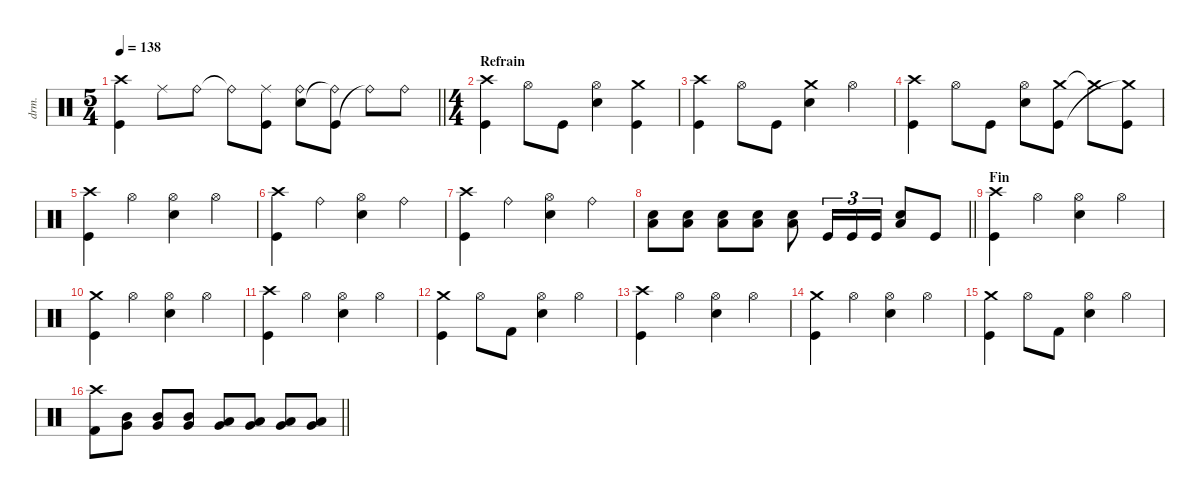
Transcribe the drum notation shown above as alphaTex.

\defaultSystemsLayout 4
\hideDynamics
\bracketExtendMode nobrackets
\track ("Percussions" "drm.") {instrument percussion}
\staff {score}
\articulation defaults
\ts (5 4)
\tempo 138
\clef neutral
\barLineRight lightlight
\ks aminor
("Crash high (hit)" "Kick (hit)").4{dy f} "Ride (middle)".8 "Ride (bell)".8 "Ride (bell)"{t}.8 ("Ride (middle)" "Kick (hit)").8 ("Ride (bell)" "Snare (hit) 2").8 ("Kick (hit)" "Ride (bell)"{t}).8 "Ride (bell)"{t}.8 "Ride (bell)".8 |
\ts (4 4)
\beaming (8 2 2 2 2)
\section ("" "Refrain")
("Kick (hit)" "Crash high (hit)").4 "Hi-Hat (open)".8 "Kick (hit)".8 ("Hi-Hat (open)" "Snare (hit) 2").4 ("Crash medium (hit)" "Kick (hit)").4 |
("Kick (hit)" "Crash high (hit)").4 "Hi-Hat (open)".8 "Kick (hit)".8 ("Crash medium (hit)" "Snare (hit) 2").4 "Hi-Hat (open)".4 |
("Kick (hit)" "Crash high (hit)").4 "Hi-Hat (open)".8 "Kick (hit)".8 ("Hi-Hat (open)" "Snare (hit) 2").8 ("Crash medium (hit)" "Kick (hit)").8 "Crash medium (hit)"{t}.8 ("Kick (hit)" "Crash medium (hit)"{t}).8 |
("Kick (hit)" "Crash high (hit)").4 "Hi-Hat (open)".4 ("Hi-Hat (open)" "Snare (hit) 2").4 "Hi-Hat (open)".4 |
("Kick (hit)" "Crash high (hit)").4 "Ride (bell)".4 ("Hi-Hat (open)" "Snare (hit) 2").4 "Ride (bell)".4 |
("Kick (hit)" "Crash high (hit)").4 "Ride (bell)".4 ("Hi-Hat (open)" "Snare (hit) 2").4 "Ride (bell)".4 |
\barLineRight lightlight
("Snare (hit) 2" "Low Tom (hit)").8 ("Snare (hit) 2" "Low Tom (hit)").8 ("Snare (hit) 2" "Low Tom (hit)").8 ("Snare (hit) 2" "Low Tom (hit)").8 ("Snare (hit) 2" "Low Tom (hit)").8 "Kick (hit)".16{tu (3 2)} "Kick (hit)".16{tu (3 2)} "Kick (hit)".16{tu (3 2)} ("Snare (hit) 2" "Low Tom (hit)").8 "Kick (hit)".8 |
\section ("" "Fin")
("Crash high (hit)" "Kick (hit)").4 "Hi-Hat (open)".4 ("Hi-Hat (open)" "Snare (hit) 2").4 "Hi-Hat (open)".4 |
("Crash medium (hit)" "Kick (hit)").4 "Hi-Hat (open)".4 ("Hi-Hat (open)" "Snare (hit) 2").4 "Hi-Hat (open)".4 |
("Crash high (hit)" "Kick (hit)").4 "Hi-Hat (open)".4 ("Hi-Hat (open)" "Snare (hit) 2").4 "Hi-Hat (open)".4 |
("Crash medium (hit)" "Kick (hit)").4 "Hi-Hat (open)".8 "Kick (hit) 2".8 ("Hi-Hat (open)" "Snare (hit) 2").4 "Hi-Hat (open)".4 |
("Crash high (hit)" "Kick (hit)").4 "Hi-Hat (open)".4 ("Hi-Hat (open)" "Snare (hit) 2").4 "Hi-Hat (open)".4 |
("Crash medium (hit)" "Kick (hit)").4 "Hi-Hat (open)".4 ("Hi-Hat (open)" "Snare (hit) 2").4 "Hi-Hat (open)".4 |
("Crash medium (hit)" "Kick (hit)").4 "Hi-Hat (open)".8 "Kick (hit) 2".8 ("Hi-Hat (open)" "Snare (hit) 2").4 "Hi-Hat (open)".4 |
\barLineRight lightlight
("Crash high (hit)" "Kick (hit) 2").8 ("Mid Tom (hit)" "Very Low Tom (hit)").8 ("Very Low Tom (hit)" "Mid Tom (hit)").8 ("Very Low Tom (hit)" "Mid Tom (hit)").8 ("Very Low Tom (hit)" "Low Tom (hit)").8 ("Very Low Tom (hit)" "Low Tom (hit)").8 ("Very Low Tom (hit)" "Low Tom (hit)").8 ("Very Low Tom (hit)" "Low Tom (hit)").8
